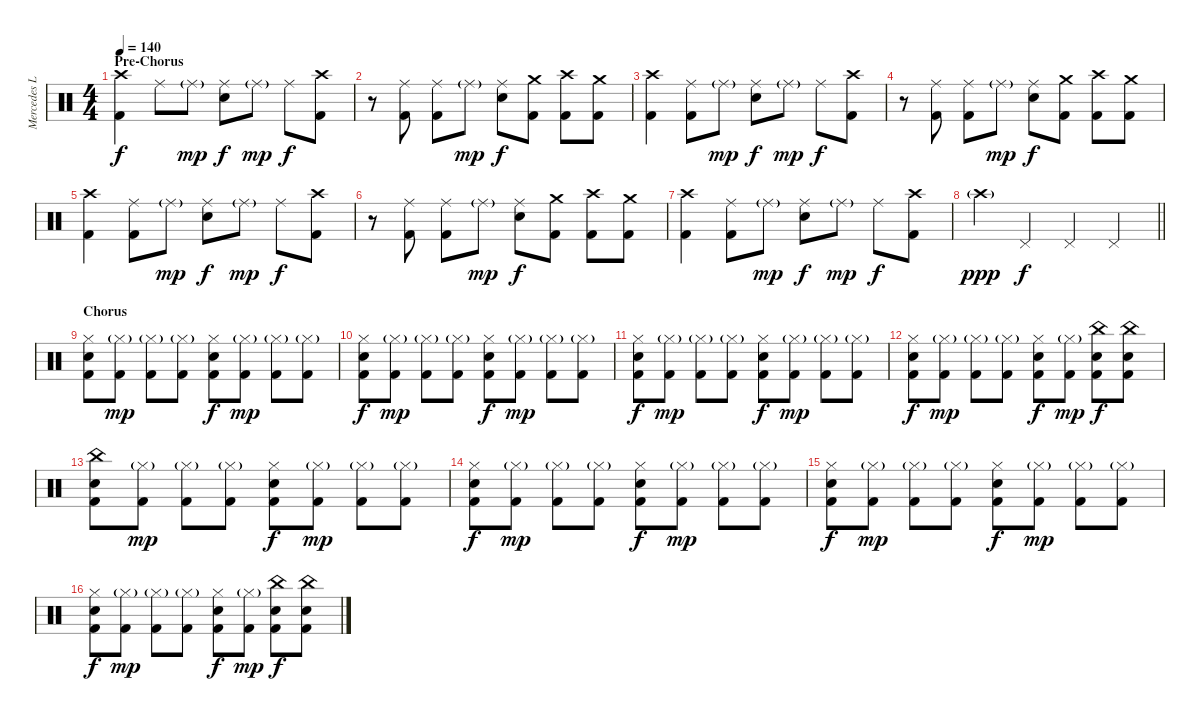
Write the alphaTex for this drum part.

\track ("Mercedes Lander" "Mercedes L") {instrument percussion}
\staff {score}
\articulation defaults
\ts (4 4)
\section ("" "Pre-Chorus")
\tempo 140
\clef neutral
\ks c
("Crash high (hit)" "Kick (hit) 2").4{dy f} "Ride (middle)".8 "Ride (middle)"{g}.8{dy mp} ("Ride (middle)" "Snare (hit) 2").8{dy f} "Ride (middle)"{g}.8{dy mp} "Ride (middle)".8{dy f} ("Crash high (hit)" "Kick (hit) 2").8 |
r.8 ("Ride (middle)" "Kick (hit) 2").8 ("Ride (middle)" "Kick (hit) 2").8 "Ride (middle)"{g}.8{dy mp} ("Ride (middle)" "Snare (hit) 2").8{dy f} ("Crash medium (hit)" "Kick (hit) 2").8 ("Crash high (hit)" "Kick (hit) 2").8 ("Crash medium (hit)" "Kick (hit) 2").8 |
("Crash high (hit)" "Kick (hit) 2").4 ("Ride (middle)" "Kick (hit) 2").8 "Ride (middle)"{g}.8{dy mp} ("Ride (middle)" "Snare (hit) 2").8{dy f} "Ride (middle)"{g}.8{dy mp} "Ride (middle)".8{dy f} ("Crash high (hit)" "Kick (hit) 2").8 |
r.8 ("Ride (middle)" "Kick (hit) 2").8 ("Ride (middle)" "Kick (hit) 2").8 "Ride (middle)"{g}.8{dy mp} ("Ride (middle)" "Snare (hit) 2").8{dy f} ("Crash medium (hit)" "Kick (hit) 2").8 ("Crash high (hit)" "Kick (hit) 2").8 ("Crash medium (hit)" "Kick (hit) 2").8 |
("Crash high (hit)" "Kick (hit) 2").4 ("Ride (middle)" "Kick (hit) 2").8 "Ride (middle)"{g}.8{dy mp} ("Ride (middle)" "Snare (hit) 2").8{dy f} "Ride (middle)"{g}.8{dy mp} "Ride (middle)".8{dy f} ("Crash high (hit)" "Kick (hit) 2").8 |
r.8 ("Ride (middle)" "Kick (hit) 2").8 ("Ride (middle)" "Kick (hit) 2").8 "Ride (middle)"{g}.8{dy mp} ("Ride (middle)" "Snare (hit) 2").8{dy f} ("Crash medium (hit)" "Kick (hit) 2").8 ("Crash high (hit)" "Kick (hit) 2").8 ("Crash medium (hit)" "Kick (hit) 2").8 |
("Crash high (hit)" "Kick (hit) 2").4 ("Ride (middle)" "Kick (hit) 2").8 "Ride (middle)"{g}.8{dy mp} ("Ride (middle)" "Snare (hit) 2").8{dy f} "Ride (middle)"{g}.8{dy mp} "Ride (middle)".8{dy f} ("Crash high (hit)" "Kick (hit) 2").8 |
\barLineRight lightlight "Crash high (hit)"{g}.4{dy ppp} "Pedal Hi-Hat (hit)".4{dy f} "Pedal Hi-Hat (hit)".4 "Pedal Hi-Hat (hit)".4
|
\section ("" "Chorus")
("Hi-Hat (closed)" "Snare (hit) 2" "Kick (hit) 2").8 ("Hi-Hat (closed)"{g} "Kick (hit) 2").8{dy mp} ("Hi-Hat (closed)"{g} "Kick (hit) 2").8 ("Hi-Hat (closed)"{g} "Kick (hit) 2").8 ("Hi-Hat (closed)" "Snare (hit) 2" "Kick (hit) 2").8{dy f} ("Hi-Hat (closed)"{g} "Kick (hit) 2").8{dy mp} ("Hi-Hat (closed)"{g} "Kick (hit) 2").8 ("Hi-Hat (closed)"{g} "Kick (hit) 2").8 |
("Hi-Hat (closed)" "Snare (hit) 2" "Kick (hit) 2").8{dy f} ("Hi-Hat (closed)"{g} "Kick (hit) 2").8{dy mp} ("Hi-Hat (closed)"{g} "Kick (hit) 2").8 ("Hi-Hat (closed)"{g} "Kick (hit) 2").8 ("Hi-Hat (closed)" "Snare (hit) 2" "Kick (hit) 2").8{dy f} ("Hi-Hat (closed)"{g} "Kick (hit) 2").8{dy mp} ("Hi-Hat (closed)"{g} "Kick (hit) 2").8 ("Hi-Hat (closed)"{g} "Kick (hit) 2").8 |
("Hi-Hat (closed)" "Snare (hit) 2" "Kick (hit) 2").8{dy f} ("Hi-Hat (closed)"{g} "Kick (hit) 2").8{dy mp} ("Hi-Hat (closed)"{g} "Kick (hit) 2").8 ("Hi-Hat (closed)"{g} "Kick (hit) 2").8 ("Hi-Hat (closed)" "Snare (hit) 2" "Kick (hit) 2").8{dy f} ("Hi-Hat (closed)"{g} "Kick (hit) 2").8{dy mp} ("Hi-Hat (closed)"{g} "Kick (hit) 2").8 ("Hi-Hat (closed)"{g} "Kick (hit) 2").8 |
("Hi-Hat (closed)" "Snare (hit) 2" "Kick (hit) 2").8{dy f} ("Hi-Hat (closed)"{g} "Kick (hit) 2").8{dy mp} ("Hi-Hat (closed)"{g} "Kick (hit) 2").8 ("Hi-Hat (closed)"{g} "Kick (hit) 2").8 ("Hi-Hat (closed)" "Snare (hit) 2" "Kick (hit) 2").8{dy f} ("Hi-Hat (closed)"{g} "Kick (hit) 2").8{dy mp} ("China (hit)" "Snare (hit) 2" "Kick (hit) 2").8{dy f} ("China (hit)" "Snare (hit) 2" "Kick (hit) 2").8 |
("China (hit)" "Snare (hit) 2" "Kick (hit) 2").8 ("Hi-Hat (closed)"{g} "Kick (hit) 2").8{dy mp} ("Hi-Hat (closed)"{g} "Kick (hit) 2").8 ("Hi-Hat (closed)"{g} "Kick (hit) 2").8 ("Hi-Hat (closed)" "Snare (hit) 2" "Kick (hit) 2").8{dy f} ("Hi-Hat (closed)"{g} "Kick (hit) 2").8{dy mp} ("Hi-Hat (closed)"{g} "Kick (hit) 2").8 ("Hi-Hat (closed)"{g} "Kick (hit) 2").8 |
("Hi-Hat (closed)" "Snare (hit) 2" "Kick (hit) 2").8{dy f} ("Hi-Hat (closed)"{g} "Kick (hit) 2").8{dy mp} ("Hi-Hat (closed)"{g} "Kick (hit) 2").8 ("Hi-Hat (closed)"{g} "Kick (hit) 2").8 ("Hi-Hat (closed)" "Snare (hit) 2" "Kick (hit) 2").8{dy f} ("Hi-Hat (closed)"{g} "Kick (hit) 2").8{dy mp} ("Hi-Hat (closed)"{g} "Kick (hit) 2").8 ("Hi-Hat (closed)"{g} "Kick (hit) 2").8 |
("Hi-Hat (closed)" "Snare (hit) 2" "Kick (hit) 2").8{dy f} ("Hi-Hat (closed)"{g} "Kick (hit) 2").8{dy mp} ("Hi-Hat (closed)"{g} "Kick (hit) 2").8 ("Hi-Hat (closed)"{g} "Kick (hit) 2").8 ("Hi-Hat (closed)" "Snare (hit) 2" "Kick (hit) 2").8{dy f} ("Hi-Hat (closed)"{g} "Kick (hit) 2").8{dy mp} ("Hi-Hat (closed)"{g} "Kick (hit) 2").8 ("Hi-Hat (closed)"{g} "Kick (hit) 2").8 |
("Hi-Hat (closed)" "Snare (hit) 2" "Kick (hit) 2").8{dy f} ("Hi-Hat (closed)"{g} "Kick (hit) 2").8{dy mp} ("Hi-Hat (closed)"{g} "Kick (hit) 2").8 ("Hi-Hat (closed)"{g} "Kick (hit) 2").8 ("Hi-Hat (closed)" "Snare (hit) 2" "Kick (hit) 2").8{dy f} ("Hi-Hat (closed)"{g} "Kick (hit) 2").8{dy mp} ("China (hit)" "Snare (hit) 2" "Kick (hit) 2").8{dy f} ("China (hit)" "Snare (hit) 2" "Kick (hit) 2").8
